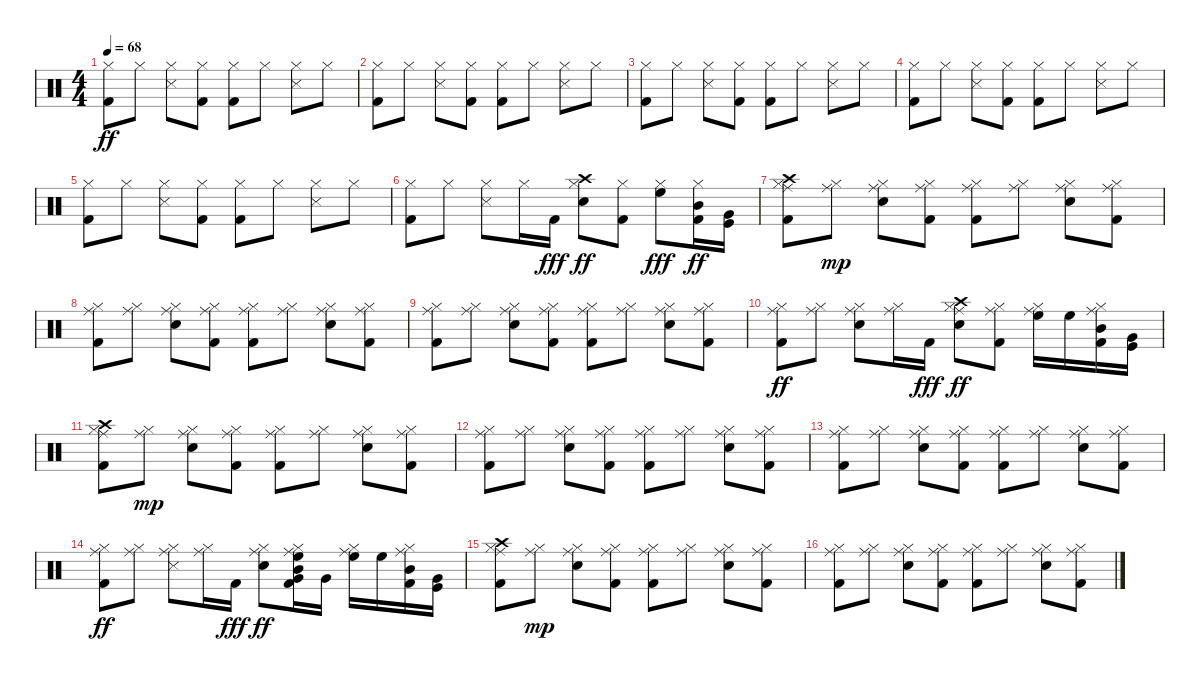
\track "" {instrument percussion}
\staff {score}
\articulation defaults
\ts (4 4)
\tempo 68
\clef neutral
\ks c
("Kick (hit) 2" "Hi-Hat (closed)").8{dy ff} "Hi-Hat (closed)".8 ("Snare (side stick) 3" "Hi-Hat (closed)").8 ("Kick (hit) 2" "Hi-Hat (closed)").8 ("Kick (hit) 2" "Hi-Hat (closed)").8 "Hi-Hat (closed)".8 ("Snare (side stick) 3" "Hi-Hat (closed)").8 "Hi-Hat (closed)".8 |
("Kick (hit) 2" "Hi-Hat (closed)").8 "Hi-Hat (closed)".8 ("Snare (side stick) 3" "Hi-Hat (closed)").8 ("Kick (hit) 2" "Hi-Hat (closed)").8 ("Kick (hit) 2" "Hi-Hat (closed)").8 "Hi-Hat (closed)".8 ("Snare (side stick) 3" "Hi-Hat (closed)").8 "Hi-Hat (closed)".8 |
("Kick (hit) 2" "Hi-Hat (closed)").8 "Hi-Hat (closed)".8 ("Snare (side stick) 3" "Hi-Hat (closed)").8 ("Kick (hit) 2" "Hi-Hat (closed)").8 ("Kick (hit) 2" "Hi-Hat (closed)").8 "Hi-Hat (closed)".8 ("Snare (side stick) 3" "Hi-Hat (closed)").8 "Hi-Hat (closed)".8 |
("Kick (hit) 2" "Hi-Hat (closed)").8 "Hi-Hat (closed)".8 ("Snare (side stick) 3" "Hi-Hat (closed)").8 ("Kick (hit) 2" "Hi-Hat (closed)").8 ("Kick (hit) 2" "Hi-Hat (closed)").8 "Hi-Hat (closed)".8 ("Snare (side stick) 3" "Hi-Hat (closed)").8 "Hi-Hat (closed)".8 |
("Kick (hit) 2" "Hi-Hat (closed)").8 "Hi-Hat (closed)".8 ("Snare (side stick) 3" "Hi-Hat (closed)").8 ("Kick (hit) 2" "Hi-Hat (closed)").8 ("Kick (hit) 2" "Hi-Hat (closed)").8 "Hi-Hat (closed)".8 ("Snare (side stick) 3" "Hi-Hat (closed)").8 "Hi-Hat (closed)".8 |
("Kick (hit) 2" "Hi-Hat (closed)").8 "Hi-Hat (closed)".8 ("Snare (side stick) 3" "Hi-Hat (closed)").8 "Hi-Hat (closed)".16 "Kick (hit) 2".16{dy fff} ("Electric Snare (hit)" "Hi-Hat (closed)" "Crash high (hit)").8{dy ff} ("Kick (hit) 2" "Hi-Hat (closed)").8 ("Hi-Hat (closed)" "High Floor Tom (hit)").8{dy fff} ("Kick (hit) 2" "Hi-Hat (closed)" "Mid Tom (hit)").16{dy ff} ("Kick (hit)" "Very Low Tom (hit)").16 |
("Kick (hit) 2" "Hi-Hat (closed)" "Crash high (hit)" "Ride (middle)").8 ("Hi-Hat (closed)" "Ride (middle)").8{dy mp} ("Electric Snare (hit)" "Hi-Hat (closed)" "Ride (middle)").8 ("Kick (hit) 2" "Hi-Hat (closed)" "Ride (middle)").8 ("Kick (hit) 2" "Hi-Hat (closed)" "Ride (middle)").8 ("Hi-Hat (closed)" "Ride (middle)").8 ("Electric Snare (hit)" "Hi-Hat (closed)" "Ride (middle)").8 ("Kick (hit) 2" "Hi-Hat (closed)" "Ride (middle)").8 |
("Kick (hit) 2" "Hi-Hat (closed)" "Ride (middle)").8 ("Hi-Hat (closed)" "Ride (middle)").8 ("Electric Snare (hit)" "Hi-Hat (closed)" "Ride (middle)").8 ("Kick (hit) 2" "Hi-Hat (closed)" "Ride (middle)").8 ("Kick (hit) 2" "Hi-Hat (closed)" "Ride (middle)").8 ("Hi-Hat (closed)" "Ride (middle)").8 ("Electric Snare (hit)" "Hi-Hat (closed)" "Ride (middle)").8 ("Kick (hit) 2" "Hi-Hat (closed)" "Ride (middle)").8 |
("Kick (hit) 2" "Hi-Hat (closed)" "Ride (middle)").8 ("Hi-Hat (closed)" "Ride (middle)").8 ("Electric Snare (hit)" "Hi-Hat (closed)" "Ride (middle)").8 ("Kick (hit) 2" "Hi-Hat (closed)" "Ride (middle)").8 ("Kick (hit) 2" "Hi-Hat (closed)" "Ride (middle)").8 ("Hi-Hat (closed)" "Ride (middle)").8 ("Electric Snare (hit)" "Hi-Hat (closed)" "Ride (middle)").8 ("Kick (hit) 2" "Hi-Hat (closed)" "Ride (middle)").8 |
("Kick (hit) 2" "Hi-Hat (closed)" "Ride (middle)").8{dy ff} ("Hi-Hat (closed)" "Ride (middle)").8 ("Electric Snare (hit)" "Hi-Hat (closed)" "Ride (middle)").8 ("Hi-Hat (closed)" "Ride (middle)").16 "Kick (hit) 2".16{dy fff} ("Electric Snare (hit)" "Hi-Hat (closed)" "Crash high (hit)" "Ride (middle)").8{dy ff} ("Kick (hit) 2" "Hi-Hat (closed)" "Ride (middle)").8 ("Hi-Hat (closed)" "High Floor Tom (hit)" "Ride (middle)").16 "High Floor Tom (hit)".16 ("Kick (hit) 2" "Hi-Hat (closed)" "Mid Tom (hit)" "Ride (middle)").16 ("Kick (hit)" "Very Low Tom (hit)").16 |
("Kick (hit) 2" "Hi-Hat (closed)" "Crash high (hit)" "Ride (middle)").8 ("Hi-Hat (closed)" "Ride (middle)").8{dy mp} ("Electric Snare (hit)" "Hi-Hat (closed)" "Ride (middle)").8 ("Kick (hit) 2" "Hi-Hat (closed)" "Ride (middle)").8 ("Kick (hit) 2" "Hi-Hat (closed)" "Ride (middle)").8 ("Hi-Hat (closed)" "Ride (middle)").8 ("Electric Snare (hit)" "Hi-Hat (closed)" "Ride (middle)").8 ("Kick (hit) 2" "Hi-Hat (closed)" "Ride (middle)").8 |
("Kick (hit) 2" "Hi-Hat (closed)" "Ride (middle)").8 ("Hi-Hat (closed)" "Ride (middle)").8 ("Electric Snare (hit)" "Hi-Hat (closed)" "Ride (middle)").8 ("Kick (hit) 2" "Hi-Hat (closed)" "Ride (middle)").8 ("Kick (hit) 2" "Hi-Hat (closed)" "Ride (middle)").8 ("Hi-Hat (closed)" "Ride (middle)").8 ("Electric Snare (hit)" "Hi-Hat (closed)" "Ride (middle)").8 ("Kick (hit) 2" "Hi-Hat (closed)" "Ride (middle)").8 |
("Kick (hit) 2" "Hi-Hat (closed)" "Ride (middle)").8 ("Hi-Hat (closed)" "Ride (middle)").8 ("Electric Snare (hit)" "Hi-Hat (closed)" "Ride (middle)").8 ("Kick (hit) 2" "Hi-Hat (closed)" "Ride (middle)").8 ("Kick (hit) 2" "Hi-Hat (closed)" "Ride (middle)").8 ("Hi-Hat (closed)" "Ride (middle)").8 ("Electric Snare (hit)" "Hi-Hat (closed)" "Ride (middle)").8 ("Kick (hit) 2" "Hi-Hat (closed)" "Ride (middle)").8 |
("Kick (hit) 2" "Hi-Hat (closed)" "Ride (middle)").8{dy ff} ("Hi-Hat (closed)" "Ride (middle)").8 ("Snare (side stick) 3" "Hi-Hat (closed)" "Ride (middle)").8 ("Hi-Hat (closed)" "Ride (middle)").16 "Kick (hit) 2".16{dy fff} ("Electric Snare (hit)" "Hi-Hat (closed)" "Ride (middle)").8{dy ff} ("Kick (hit) 2" "Hi-Hat (closed)" "Very Low Tom (hit)" "Mid Tom (hit)" "High Floor Tom (hit)" "Ride (middle)").16 "Very Low Tom (hit)".16 ("Hi-Hat (closed)" "High Floor Tom (hit)" "Ride (middle)").16 "High Floor Tom (hit)".16 ("Kick (hit) 2" "Hi-Hat (closed)" "Mid Tom (hit)" "Ride (middle)").16 ("Kick (hit)" "Very Low Tom (hit)").16 |
("Kick (hit) 2" "Hi-Hat (closed)" "Crash high (hit)" "Ride (middle)").8 ("Hi-Hat (closed)" "Ride (middle)").8{dy mp} ("Electric Snare (hit)" "Hi-Hat (closed)" "Ride (middle)").8 ("Kick (hit) 2" "Hi-Hat (closed)" "Ride (middle)").8 ("Kick (hit) 2" "Hi-Hat (closed)" "Ride (middle)").8 ("Hi-Hat (closed)" "Ride (middle)").8 ("Electric Snare (hit)" "Hi-Hat (closed)" "Ride (middle)").8 ("Kick (hit) 2" "Hi-Hat (closed)" "Ride (middle)").8 |
("Kick (hit) 2" "Hi-Hat (closed)" "Ride (middle)").8 ("Hi-Hat (closed)" "Ride (middle)").8 ("Electric Snare (hit)" "Hi-Hat (closed)" "Ride (middle)").8 ("Kick (hit) 2" "Hi-Hat (closed)" "Ride (middle)").8 ("Kick (hit) 2" "Hi-Hat (closed)" "Ride (middle)").8 ("Hi-Hat (closed)" "Ride (middle)").8 ("Electric Snare (hit)" "Hi-Hat (closed)" "Ride (middle)").8 ("Kick (hit) 2" "Hi-Hat (closed)" "Ride (middle)").8
